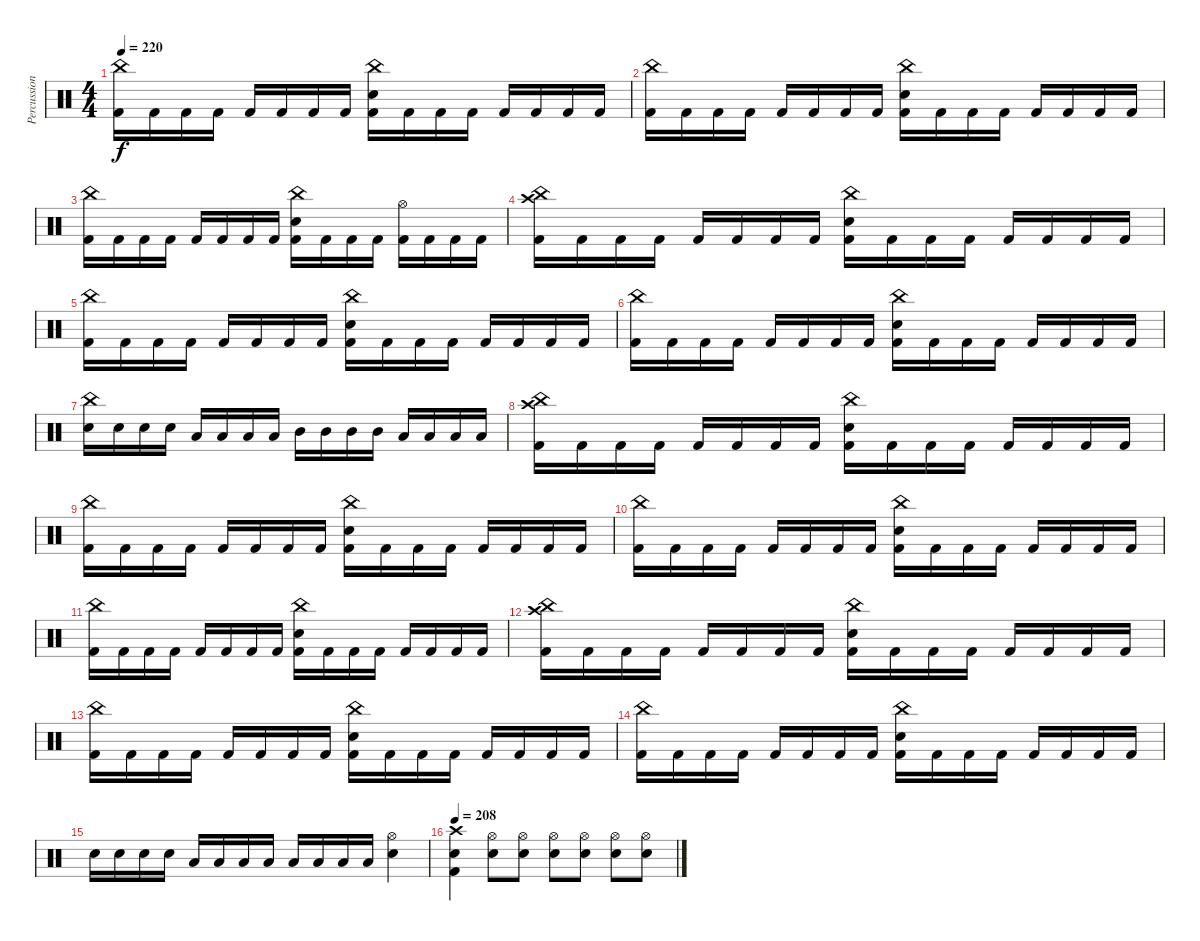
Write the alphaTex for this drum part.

\track ("Percussion" "Percussion") {instrument percussion}
\staff {score}
\articulation defaults
\ts (4 4)
\tempo 220
\clef neutral
\ks c
("China (hit)" "Kick (hit) 2").16{dy f} "Kick (hit) 2".16 "Kick (hit) 2".16 "Kick (hit) 2".16 "Kick (hit) 2".16 "Kick (hit) 2".16 "Kick (hit) 2".16 "Kick (hit) 2".16 ("China (hit)" "Electric Snare (hit)" "Kick (hit) 2").16 "Kick (hit) 2".16 "Kick (hit) 2".16 "Kick (hit) 2".16 "Kick (hit) 2".16 "Kick (hit) 2".16 "Kick (hit) 2".16 "Kick (hit) 2".16 |
("China (hit)" "Kick (hit) 2").16 "Kick (hit) 2".16 "Kick (hit) 2".16 "Kick (hit) 2".16 "Kick (hit) 2".16 "Kick (hit) 2".16 "Kick (hit) 2".16 "Kick (hit) 2".16 ("China (hit)" "Electric Snare (hit)" "Kick (hit) 2").16 "Kick (hit) 2".16 "Kick (hit) 2".16 "Kick (hit) 2".16 "Kick (hit) 2".16 "Kick (hit) 2".16 "Kick (hit) 2".16 "Kick (hit) 2".16 |
("China (hit)" "Kick (hit) 2").16 "Kick (hit) 2".16 "Kick (hit) 2".16 "Kick (hit) 2".16 "Kick (hit) 2".16 "Kick (hit) 2".16 "Kick (hit) 2".16 "Kick (hit) 2".16 ("China (hit)" "Electric Snare (hit)" "Kick (hit) 2").16 "Kick (hit) 2".16 "Kick (hit) 2".16 "Kick (hit) 2".16 ("Hi-Hat (open)" "Kick (hit) 2").16 "Kick (hit) 2".16 "Kick (hit) 2".16 "Kick (hit) 2".16 |
("Crash high (hit)" "China (hit)" "Kick (hit) 2").16 "Kick (hit) 2".16 "Kick (hit) 2".16 "Kick (hit) 2".16 "Kick (hit) 2".16 "Kick (hit) 2".16 "Kick (hit) 2".16 "Kick (hit) 2".16 ("China (hit)" "Electric Snare (hit)" "Kick (hit) 2").16 "Kick (hit) 2".16 "Kick (hit) 2".16 "Kick (hit) 2".16 "Kick (hit) 2".16 "Kick (hit) 2".16 "Kick (hit) 2".16 "Kick (hit) 2".16 |
("China (hit)" "Kick (hit) 2").16 "Kick (hit) 2".16 "Kick (hit) 2".16 "Kick (hit) 2".16 "Kick (hit) 2".16 "Kick (hit) 2".16 "Kick (hit) 2".16 "Kick (hit) 2".16 ("China (hit)" "Electric Snare (hit)" "Kick (hit) 2").16 "Kick (hit) 2".16 "Kick (hit) 2".16 "Kick (hit) 2".16 "Kick (hit) 2".16 "Kick (hit) 2".16 "Kick (hit) 2".16 "Kick (hit) 2".16 |
("China (hit)" "Kick (hit) 2").16 "Kick (hit) 2".16 "Kick (hit) 2".16 "Kick (hit) 2".16 "Kick (hit) 2".16 "Kick (hit) 2".16 "Kick (hit) 2".16 "Kick (hit) 2".16 ("China (hit)" "Electric Snare (hit)" "Kick (hit) 2").16 "Kick (hit) 2".16 "Kick (hit) 2".16 "Kick (hit) 2".16 "Kick (hit) 2".16 "Kick (hit) 2".16 "Kick (hit) 2".16 "Kick (hit) 2".16 |
("China (hit)" "Electric Snare (hit)").16 "Electric Snare (hit)".16 "Electric Snare (hit)".16 "Electric Snare (hit)".16 "Low Floor Tom (hit)".16 "Low Floor Tom (hit)".16 "Low Floor Tom (hit)".16 "Low Floor Tom (hit)".16 "Mid Tom (hit)".16 "Mid Tom (hit)".16 "Mid Tom (hit)".16 "Mid Tom (hit)".16 "Low Tom (hit)".16 "Low Tom (hit)".16 "Low Tom (hit)".16 "Low Tom (hit)".16 |
("Crash high (hit)" "China (hit)" "Kick (hit) 2").16 "Kick (hit) 2".16 "Kick (hit) 2".16 "Kick (hit) 2".16 "Kick (hit) 2".16 "Kick (hit) 2".16 "Kick (hit) 2".16 "Kick (hit) 2".16 ("China (hit)" "Electric Snare (hit)" "Kick (hit) 2").16 "Kick (hit) 2".16 "Kick (hit) 2".16 "Kick (hit) 2".16 "Kick (hit) 2".16 "Kick (hit) 2".16 "Kick (hit) 2".16 "Kick (hit) 2".16 |
("China (hit)" "Kick (hit) 2").16 "Kick (hit) 2".16 "Kick (hit) 2".16 "Kick (hit) 2".16 "Kick (hit) 2".16 "Kick (hit) 2".16 "Kick (hit) 2".16 "Kick (hit) 2".16 ("China (hit)" "Electric Snare (hit)" "Kick (hit) 2").16 "Kick (hit) 2".16 "Kick (hit) 2".16 "Kick (hit) 2".16 "Kick (hit) 2".16 "Kick (hit) 2".16 "Kick (hit) 2".16 "Kick (hit) 2".16 |
("China (hit)" "Kick (hit) 2").16 "Kick (hit) 2".16 "Kick (hit) 2".16 "Kick (hit) 2".16 "Kick (hit) 2".16 "Kick (hit) 2".16 "Kick (hit) 2".16 "Kick (hit) 2".16 ("China (hit)" "Electric Snare (hit)" "Kick (hit) 2").16 "Kick (hit) 2".16 "Kick (hit) 2".16 "Kick (hit) 2".16 "Kick (hit) 2".16 "Kick (hit) 2".16 "Kick (hit) 2".16 "Kick (hit) 2".16 |
("China (hit)" "Kick (hit) 2").16 "Kick (hit) 2".16 "Kick (hit) 2".16 "Kick (hit) 2".16 "Kick (hit) 2".16 "Kick (hit) 2".16 "Kick (hit) 2".16 "Kick (hit) 2".16 ("China (hit)" "Electric Snare (hit)" "Kick (hit) 2").16 "Kick (hit) 2".16 "Kick (hit) 2".16 "Kick (hit) 2".16 "Kick (hit) 2".16 "Kick (hit) 2".16 "Kick (hit) 2".16 "Kick (hit) 2".16 |
("Crash high (hit)" "China (hit)" "Kick (hit) 2").16 "Kick (hit) 2".16 "Kick (hit) 2".16 "Kick (hit) 2".16 "Kick (hit) 2".16 "Kick (hit) 2".16 "Kick (hit) 2".16 "Kick (hit) 2".16 ("China (hit)" "Electric Snare (hit)" "Kick (hit) 2").16 "Kick (hit) 2".16 "Kick (hit) 2".16 "Kick (hit) 2".16 "Kick (hit) 2".16 "Kick (hit) 2".16 "Kick (hit) 2".16 "Kick (hit) 2".16 |
("China (hit)" "Kick (hit) 2").16 "Kick (hit) 2".16 "Kick (hit) 2".16 "Kick (hit) 2".16 "Kick (hit) 2".16 "Kick (hit) 2".16 "Kick (hit) 2".16 "Kick (hit) 2".16 ("China (hit)" "Electric Snare (hit)" "Kick (hit) 2").16 "Kick (hit) 2".16 "Kick (hit) 2".16 "Kick (hit) 2".16 "Kick (hit) 2".16 "Kick (hit) 2".16 "Kick (hit) 2".16 "Kick (hit) 2".16 |
("China (hit)" "Kick (hit) 2").16 "Kick (hit) 2".16 "Kick (hit) 2".16 "Kick (hit) 2".16 "Kick (hit) 2".16 "Kick (hit) 2".16 "Kick (hit) 2".16 "Kick (hit) 2".16 ("China (hit)" "Electric Snare (hit)" "Kick (hit) 2").16 "Kick (hit) 2".16 "Kick (hit) 2".16 "Kick (hit) 2".16 "Kick (hit) 2".16 "Kick (hit) 2".16 "Kick (hit) 2".16 "Kick (hit) 2".16 |
"Electric Snare (hit)".16 "Electric Snare (hit)".16 "Electric Snare (hit)".16 "Electric Snare (hit)".16 "Low Tom (hit)".16 "Low Tom (hit)".16 "Low Tom (hit)".16 "Low Tom (hit)".16 "Low Floor Tom (hit)".16 "Low Floor Tom (hit)".16 "Low Floor Tom (hit)".16 "Low Floor Tom (hit)".16 ("Hi-Hat (open)" "Electric Snare (hit)").4 |
\tempo 208
("Crash high (hit)" "Electric Snare (hit)" "Kick (hit) 2").4 ("Hi-Hat (open)" "Electric Snare (hit)").8 ("Hi-Hat (open)" "Electric Snare (hit)").8 ("Hi-Hat (open)" "Electric Snare (hit)").8 ("Hi-Hat (open)" "Electric Snare (hit)").8 ("Hi-Hat (open)" "Electric Snare (hit)").8 ("Hi-Hat (open)" "Electric Snare (hit)").8
